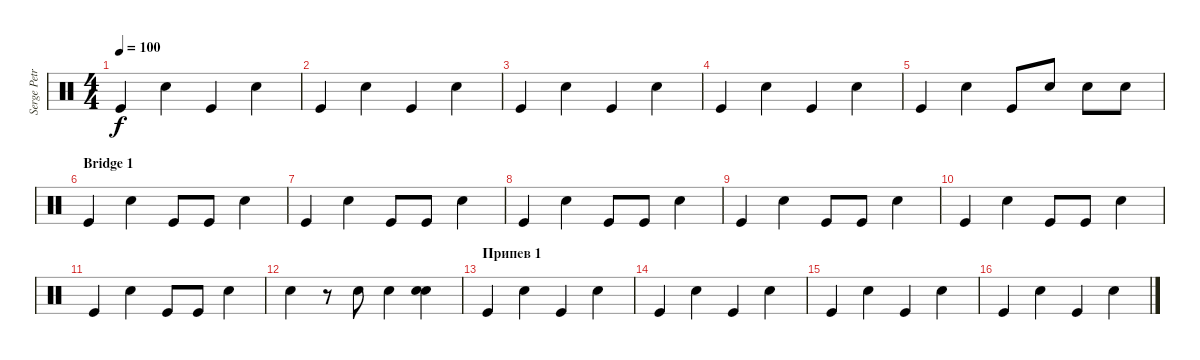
\track ("Serge Petrone" "Serge Petr") {instrument percussion}
\staff {score}
\articulation defaults
\ts (4 4)
\tempo 100
\clef neutral
\ks c "Kick (hit)".4{dy f} "Snare (hit) 2".4 "Kick (hit)".4 "Snare (hit) 2".4
|
"Kick (hit)".4 "Snare (hit) 2".4 "Kick (hit)".4 "Snare (hit) 2".4 |
"Kick (hit)".4 "Snare (hit) 2".4 "Kick (hit)".4 "Snare (hit) 2".4 |
"Kick (hit)".4 "Snare (hit) 2".4 "Kick (hit)".4 "Snare (hit) 2".4 |
"Kick (hit)".4 "Snare (hit) 2".4 "Kick (hit)".8 "Snare (hit) 2".8 "Snare (hit) 2".8 "Snare (hit) 2".8 |
\section ("" "Bridge 1")
"Kick (hit)".4 "Snare (hit) 2".4 "Kick (hit)".8 "Kick (hit)".8 "Snare (hit) 2".4 |
"Kick (hit)".4 "Snare (hit) 2".4 "Kick (hit)".8 "Kick (hit)".8 "Snare (hit) 2".4 |
"Kick (hit)".4 "Snare (hit) 2".4 "Kick (hit)".8 "Kick (hit)".8 "Snare (hit) 2".4 |
"Kick (hit)".4 "Snare (hit) 2".4 "Kick (hit)".8 "Kick (hit)".8 "Snare (hit) 2".4 |
"Kick (hit)".4 "Snare (hit) 2".4 "Kick (hit)".8 "Kick (hit)".8 "Snare (hit) 2".4 |
"Kick (hit)".4 "Snare (hit) 2".4 "Kick (hit)".8 "Kick (hit)".8 "Snare (hit) 2".4 |
"Snare (hit) 2".4 r.8 "Snare (hit) 2".8{volume 16} "Snare (hit) 2".4 ("Snare (hit) 2" "Electric Snare (hit)").4 |
\section ("" "Припев 1")
"Kick (hit)".4 "Snare (hit) 2".4 "Kick (hit)".4 "Snare (hit) 2".4 |
"Kick (hit)".4 "Snare (hit) 2".4 "Kick (hit)".4 "Snare (hit) 2".4 |
"Kick (hit)".4 "Snare (hit) 2".4 "Kick (hit)".4 "Snare (hit) 2".4 |
"Kick (hit)".4 "Snare (hit) 2".4 "Kick (hit)".4 "Snare (hit) 2".4
